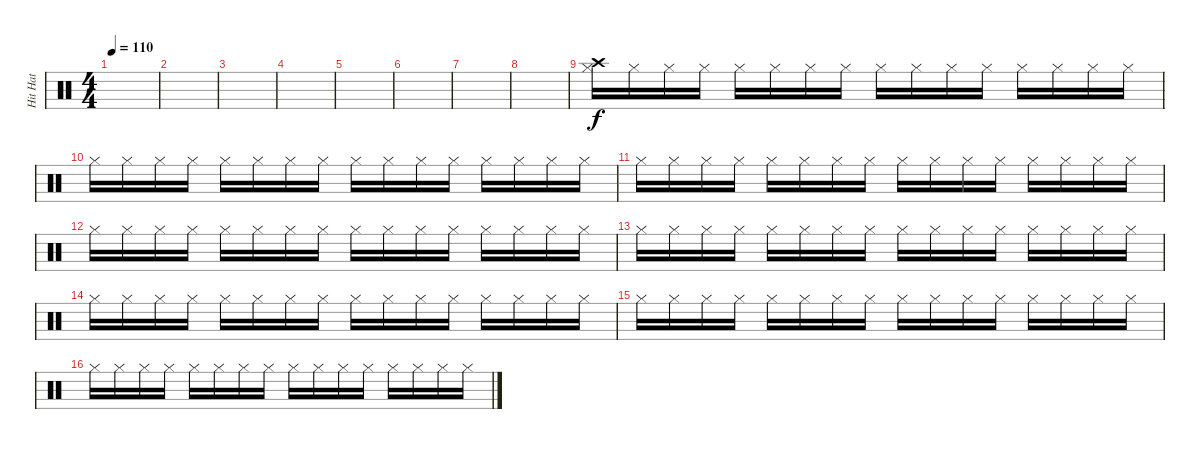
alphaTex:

\track ("Hit Hat" "Hit Hat") {instrument percussion}
\staff {score}
\articulation defaults
\ts (4 4)
\tempo 110
\clef neutral
\ks c
|
|
|
|
|
|
|
|
("Crash high (hit)" "Hi-Hat (closed)").16 "Hi-Hat (closed)".16 "Hi-Hat (closed)".16 "Hi-Hat (closed)".16 "Hi-Hat (closed)".16 "Hi-Hat (closed)".16 "Hi-Hat (closed)".16 "Hi-Hat (closed)".16 "Hi-Hat (closed)".16 "Hi-Hat (closed)".16 "Hi-Hat (closed)".16 "Hi-Hat (closed)".16 "Hi-Hat (closed)".16 "Hi-Hat (closed)".16 "Hi-Hat (closed)".16 "Hi-Hat (closed)".16 |
"Hi-Hat (closed)".16 "Hi-Hat (closed)".16 "Hi-Hat (closed)".16 "Hi-Hat (closed)".16 "Hi-Hat (closed)".16 "Hi-Hat (closed)".16 "Hi-Hat (closed)".16 "Hi-Hat (closed)".16 "Hi-Hat (closed)".16 "Hi-Hat (closed)".16 "Hi-Hat (closed)".16 "Hi-Hat (closed)".16 "Hi-Hat (closed)".16 "Hi-Hat (closed)".16 "Hi-Hat (closed)".16 "Hi-Hat (closed)".16 |
"Hi-Hat (closed)".16 "Hi-Hat (closed)".16 "Hi-Hat (closed)".16 "Hi-Hat (closed)".16 "Hi-Hat (closed)".16 "Hi-Hat (closed)".16 "Hi-Hat (closed)".16 "Hi-Hat (closed)".16 "Hi-Hat (closed)".16 "Hi-Hat (closed)".16 "Hi-Hat (closed)".16 "Hi-Hat (closed)".16 "Hi-Hat (closed)".16 "Hi-Hat (closed)".16 "Hi-Hat (closed)".16 "Hi-Hat (closed)".16 |
"Hi-Hat (closed)".16 "Hi-Hat (closed)".16 "Hi-Hat (closed)".16 "Hi-Hat (closed)".16 "Hi-Hat (closed)".16 "Hi-Hat (closed)".16 "Hi-Hat (closed)".16 "Hi-Hat (closed)".16 "Hi-Hat (closed)".16 "Hi-Hat (closed)".16 "Hi-Hat (closed)".16 "Hi-Hat (closed)".16 "Hi-Hat (closed)".16 "Hi-Hat (closed)".16 "Hi-Hat (closed)".16 "Hi-Hat (closed)".16 |
"Hi-Hat (closed)".16 "Hi-Hat (closed)".16 "Hi-Hat (closed)".16 "Hi-Hat (closed)".16 "Hi-Hat (closed)".16 "Hi-Hat (closed)".16 "Hi-Hat (closed)".16 "Hi-Hat (closed)".16 "Hi-Hat (closed)".16 "Hi-Hat (closed)".16 "Hi-Hat (closed)".16 "Hi-Hat (closed)".16 "Hi-Hat (closed)".16 "Hi-Hat (closed)".16 "Hi-Hat (closed)".16 "Hi-Hat (closed)".16 |
"Hi-Hat (closed)".16 "Hi-Hat (closed)".16 "Hi-Hat (closed)".16 "Hi-Hat (closed)".16 "Hi-Hat (closed)".16 "Hi-Hat (closed)".16 "Hi-Hat (closed)".16 "Hi-Hat (closed)".16 "Hi-Hat (closed)".16 "Hi-Hat (closed)".16 "Hi-Hat (closed)".16 "Hi-Hat (closed)".16 "Hi-Hat (closed)".16 "Hi-Hat (closed)".16 "Hi-Hat (closed)".16 "Hi-Hat (closed)".16 |
"Hi-Hat (closed)".16 "Hi-Hat (closed)".16 "Hi-Hat (closed)".16 "Hi-Hat (closed)".16 "Hi-Hat (closed)".16 "Hi-Hat (closed)".16 "Hi-Hat (closed)".16 "Hi-Hat (closed)".16 "Hi-Hat (closed)".16 "Hi-Hat (closed)".16 "Hi-Hat (closed)".16 "Hi-Hat (closed)".16 "Hi-Hat (closed)".16 "Hi-Hat (closed)".16 "Hi-Hat (closed)".16 "Hi-Hat (closed)".16 |
"Hi-Hat (closed)".16 "Hi-Hat (closed)".16 "Hi-Hat (closed)".16 "Hi-Hat (closed)".16 "Hi-Hat (closed)".16 "Hi-Hat (closed)".16 "Hi-Hat (closed)".16 "Hi-Hat (closed)".16 "Hi-Hat (closed)".16 "Hi-Hat (closed)".16 "Hi-Hat (closed)".16 "Hi-Hat (closed)".16 "Hi-Hat (closed)".16 "Hi-Hat (closed)".16 "Hi-Hat (closed)".16 "Hi-Hat (closed)".16
